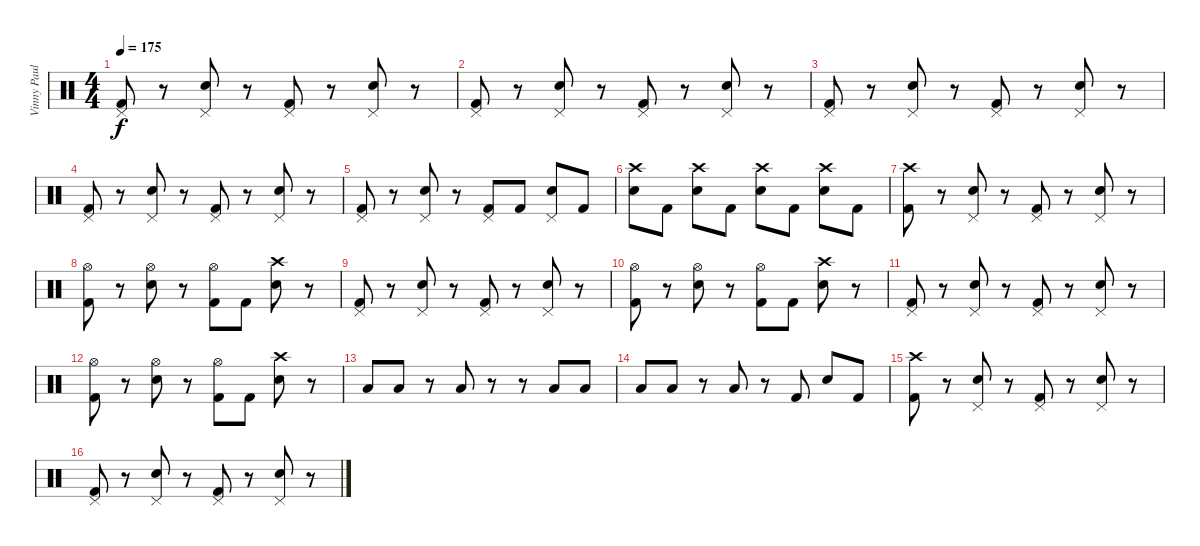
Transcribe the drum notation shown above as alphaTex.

\track ("Vinny Paul" "Vinny Paul") {instrument percussion}
\staff {score}
\articulation defaults
\ts (4 4)
\tempo 175
\clef neutral
\ks c
("Pedal Hi-Hat (hit)" "Kick (hit) 2").8{dy f} r.8 ("Pedal Hi-Hat (hit)" "Snare (hit) 2").8 r.8 ("Pedal Hi-Hat (hit)" "Kick (hit) 2").8 r.8 ("Pedal Hi-Hat (hit)" "Snare (hit) 2").8 r.8 |
("Pedal Hi-Hat (hit)" "Kick (hit) 2").8 r.8 ("Pedal Hi-Hat (hit)" "Snare (hit) 2").8 r.8 ("Pedal Hi-Hat (hit)" "Kick (hit) 2").8 r.8 ("Pedal Hi-Hat (hit)" "Snare (hit) 2").8 r.8 |
("Pedal Hi-Hat (hit)" "Kick (hit) 2").8 r.8 ("Pedal Hi-Hat (hit)" "Snare (hit) 2").8 r.8 ("Pedal Hi-Hat (hit)" "Kick (hit) 2").8 r.8 ("Pedal Hi-Hat (hit)" "Snare (hit) 2").8 r.8 |
("Pedal Hi-Hat (hit)" "Kick (hit) 2").8 r.8 ("Pedal Hi-Hat (hit)" "Snare (hit) 2").8 r.8 ("Pedal Hi-Hat (hit)" "Kick (hit) 2").8 r.8 ("Pedal Hi-Hat (hit)" "Snare (hit) 2").8 r.8 |
("Pedal Hi-Hat (hit)" "Kick (hit) 2").8 r.8 ("Pedal Hi-Hat (hit)" "Snare (hit) 2").8 r.8 ("Pedal Hi-Hat (hit)" "Kick (hit) 2").8 "Kick (hit) 2".8 ("Pedal Hi-Hat (hit)" "Snare (hit) 2").8 "Kick (hit) 2".8 |
("Crash high (hit)" "Snare (hit) 2").8 "Kick (hit) 2".8 ("Crash high (hit)" "Snare (hit) 2").8 "Kick (hit) 2".8 ("Crash high (hit)" "Snare (hit) 2").8 "Kick (hit) 2".8 ("Crash high (hit)" "Snare (hit) 2").8 "Kick (hit) 2".8 |
("Crash high (hit)" "Kick (hit) 2").8 r.8 ("Pedal Hi-Hat (hit)" "Snare (hit) 2").8 r.8 ("Pedal Hi-Hat (hit)" "Kick (hit) 2").8 r.8 ("Pedal Hi-Hat (hit)" "Snare (hit) 2").8 r.8 |
("Hi-Hat (open)" "Kick (hit) 2").8 r.8 ("Hi-Hat (open)" "Snare (hit) 2").8 r.8 ("Hi-Hat (open)" "Kick (hit) 2").8 "Kick (hit) 2".8 ("Crash high (hit)" "Snare (hit) 2").8 r.8 |
("Pedal Hi-Hat (hit)" "Kick (hit) 2").8 r.8 ("Pedal Hi-Hat (hit)" "Snare (hit) 2").8 r.8 ("Pedal Hi-Hat (hit)" "Kick (hit) 2").8 r.8 ("Pedal Hi-Hat (hit)" "Snare (hit) 2").8 r.8 |
("Hi-Hat (open)" "Kick (hit) 2").8 r.8 ("Hi-Hat (open)" "Snare (hit) 2").8 r.8 ("Hi-Hat (open)" "Kick (hit) 2").8 "Kick (hit) 2".8 ("Crash high (hit)" "Snare (hit) 2").8 r.8 |
("Pedal Hi-Hat (hit)" "Kick (hit) 2").8 r.8 ("Pedal Hi-Hat (hit)" "Snare (hit) 2").8 r.8 ("Pedal Hi-Hat (hit)" "Kick (hit) 2").8 r.8 ("Pedal Hi-Hat (hit)" "Snare (hit) 2").8 r.8 |
("Hi-Hat (open)" "Kick (hit) 2").8 r.8 ("Hi-Hat (open)" "Snare (hit) 2").8 r.8 ("Hi-Hat (open)" "Kick (hit) 2").8 "Kick (hit) 2".8 ("Crash high (hit)" "Snare (hit) 2").8 r.8 |
"Low Tom (hit)".8 "Low Tom (hit)".8 r.8 "Low Tom (hit)".8 r.8 r.8 "Low Tom (hit)".8 "Low Tom (hit)".8 |
"Low Tom (hit)".8 "Low Tom (hit)".8 r.8 "Low Tom (hit)".8 r.8 "Kick (hit) 2".8 "Snare (hit) 2".8 "Kick (hit) 2".8 |
("Crash high (hit)" "Kick (hit) 2").8 r.8 ("Pedal Hi-Hat (hit)" "Snare (hit) 2").8 r.8 ("Pedal Hi-Hat (hit)" "Kick (hit) 2").8 r.8 ("Pedal Hi-Hat (hit)" "Snare (hit) 2").8 r.8 |
("Pedal Hi-Hat (hit)" "Kick (hit) 2").8 r.8 ("Pedal Hi-Hat (hit)" "Snare (hit) 2").8 r.8 ("Pedal Hi-Hat (hit)" "Kick (hit) 2").8 r.8 ("Pedal Hi-Hat (hit)" "Snare (hit) 2").8 r.8
